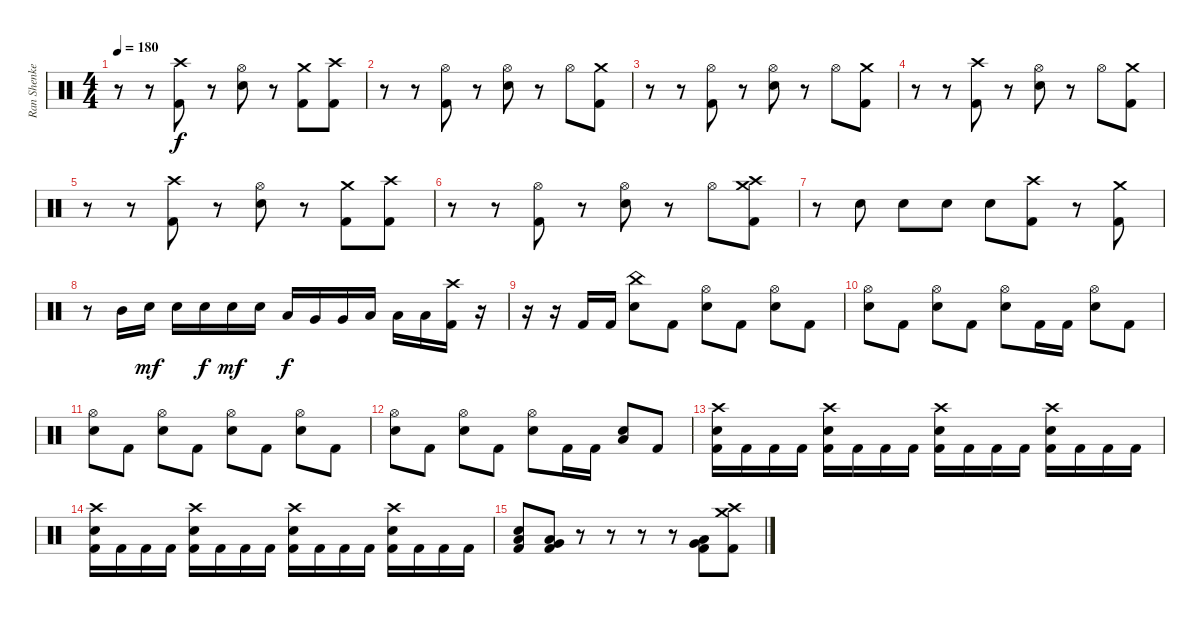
\track ("Ran Shenkerman" "Ran Shenke") {instrument percussion}
\staff {score}
\articulation defaults
\ts (4 4)
\tempo 180
\clef neutral
\ks c
r.8{dy f} r.8 ("Crash high (hit)" "Kick (hit) 2").8 r.8 ("Hi-Hat (open)" "Snare (hit) 2").8 r.8 ("Crash medium (hit)" "Kick (hit) 2").8 ("Crash high (hit)" "Kick (hit) 2").8 |
r.8 r.8 ("Hi-Hat (open)" "Kick (hit) 2").8 r.8 ("Hi-Hat (open)" "Snare (hit) 2").8 r.8 "Hi-Hat (open)".8 ("Crash medium (hit)" "Kick (hit) 2").8 |
r.8 r.8 ("Hi-Hat (open)" "Kick (hit) 2").8 r.8 ("Hi-Hat (open)" "Snare (hit) 2").8 r.8 "Hi-Hat (open)".8 ("Crash medium (hit)" "Kick (hit) 2").8 |
r.8 r.8 ("Crash high (hit)" "Kick (hit) 2").8 r.8 ("Hi-Hat (open)" "Snare (hit) 2").8 r.8 "Hi-Hat (open)".8 ("Crash medium (hit)" "Kick (hit) 2").8 |
r.8 r.8 ("Crash high (hit)" "Kick (hit) 2").8 r.8 ("Hi-Hat (open)" "Snare (hit) 2").8 r.8 ("Crash medium (hit)" "Kick (hit) 2").8 ("Crash high (hit)" "Kick (hit) 2").8 |
r.8 r.8 ("Hi-Hat (open)" "Kick (hit) 2").8 r.8 ("Hi-Hat (open)" "Snare (hit) 2").8 r.8 "Hi-Hat (open)".8 ("Crash medium (hit)" "Crash high (hit)" "Kick (hit) 2").8 |
r.8 "Snare (hit) 2".8 "Snare (hit) 2".8 "Snare (hit) 2".8 "Snare (hit) 2".8 ("Crash high (hit)" "Kick (hit) 2").8 r.8 ("Crash medium (hit)" "Kick (hit) 2").8 |
r.8 "Mid Tom (hit)".16 "Snare (hit) 2".16{dy mf} "Snare (hit) 2".16 "Snare (hit) 2".16{dy f} "Snare (hit) 2".16{dy mf} "Snare (hit) 2".16 "Low Tom (hit)".16{dy f} "Very Low Tom (hit)".16 "Very Low Tom (hit)".16 "Low Floor Tom (hit)".16 "Low Floor Tom (hit)".16 "Low Floor Tom (hit)".16 ("Crash high (hit)" "Kick (hit) 2").16 r.16 |
r.16 r.16 "Kick (hit) 2".16 "Kick (hit) 2".16 ("China (hit)" "Snare (hit) 2").8 "Kick (hit) 2".8 ("Hi-Hat (open)" "Snare (hit) 2").8 "Kick (hit) 2".8 ("Hi-Hat (open)" "Snare (hit) 2").8 "Kick (hit) 2".8 |
("Hi-Hat (open)" "Snare (hit) 2").8 "Kick (hit) 2".8 ("Hi-Hat (open)" "Snare (hit) 2").8 "Kick (hit) 2".8 ("Hi-Hat (open)" "Snare (hit) 2").8 "Kick (hit) 2".16 "Kick (hit) 2".16 ("Hi-Hat (open)" "Snare (hit) 2").8 "Kick (hit) 2".8 |
("Hi-Hat (open)" "Snare (hit) 2").8 "Kick (hit) 2".8 ("Hi-Hat (open)" "Snare (hit) 2").8 "Kick (hit) 2".8 ("Hi-Hat (open)" "Snare (hit) 2").8 "Kick (hit) 2".8 ("Hi-Hat (open)" "Snare (hit) 2").8 "Kick (hit) 2".8 |
("Hi-Hat (open)" "Snare (hit) 2").8 "Kick (hit) 2".8 ("Hi-Hat (open)" "Snare (hit) 2").8 "Kick (hit) 2".8 ("Hi-Hat (open)" "Snare (hit) 2").8 "Kick (hit) 2".16 "Kick (hit) 2".16 ("Snare (hit) 2" "Low Floor Tom (hit)").8 "Kick (hit) 2".8 |
("Crash high (hit)" "Snare (hit) 2" "Kick (hit) 2").16 "Kick (hit) 2".16 "Kick (hit) 2".16 "Kick (hit) 2".16 ("Crash high (hit)" "Snare (hit) 2" "Kick (hit) 2").16 "Kick (hit) 2".16 "Kick (hit) 2".16 "Kick (hit) 2".16 ("Crash high (hit)" "Snare (hit) 2" "Kick (hit) 2").16 "Kick (hit) 2".16 "Kick (hit) 2".16 "Kick (hit) 2".16 ("Crash high (hit)" "Snare (hit) 2" "Kick (hit) 2").16 "Kick (hit) 2".16 "Kick (hit) 2".16 "Kick (hit) 2".16 |
("Crash high (hit)" "Snare (hit) 2" "Kick (hit) 2").16 "Kick (hit) 2".16 "Kick (hit) 2".16 "Kick (hit) 2".16 ("Crash high (hit)" "Snare (hit) 2" "Kick (hit) 2").16 "Kick (hit) 2".16 "Kick (hit) 2".16 "Kick (hit) 2".16 ("Crash high (hit)" "Snare (hit) 2" "Kick (hit) 2").16 "Kick (hit) 2".16 "Kick (hit) 2".16 "Kick (hit) 2".16 ("Crash high (hit)" "Snare (hit) 2" "Kick (hit) 2").16 "Kick (hit) 2".16 "Kick (hit) 2".16 "Kick (hit) 2".16 |
("Snare (hit) 2" "Low Floor Tom (hit)" "Kick (hit) 2").8 ("Very Low Tom (hit)" "Low Floor Tom (hit)" "Kick (hit) 2").8 r.8 r.8 r.8 r.8 ("Very Low Tom (hit)" "Low Floor Tom (hit)" "Kick (hit) 2").8 ("Crash high (hit)" "Crash medium (hit)" "Kick (hit) 2").8
